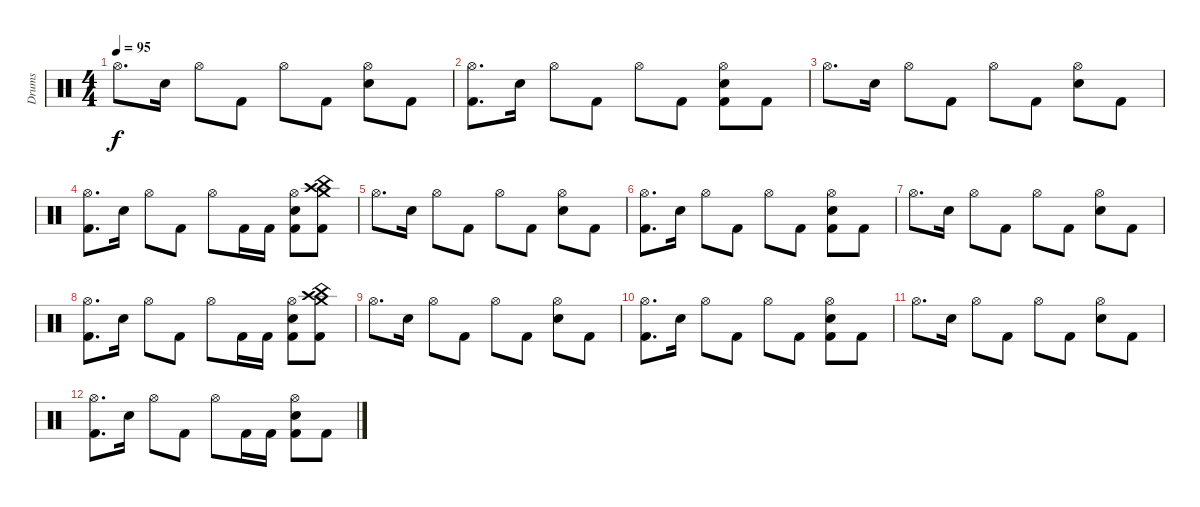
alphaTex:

\track ("Drums" "Drums") {instrument percussion}
\staff {score}
\articulation defaults
\ts (4 4)
\tempo 95
\clef neutral
\ks c "Hi-Hat (open)".8{d dy f} "Electric Snare (hit)".16 "Hi-Hat (open)".8 "Kick (hit) 2".8 "Hi-Hat (open)".8 "Kick (hit) 2".8
("Hi-Hat (open)" "Electric Snare (hit)").8 "Kick (hit) 2".8 |
("Hi-Hat (open)" "Kick (hit) 2").8{d} "Electric Snare (hit)".16 "Hi-Hat (open)".8 "Kick (hit) 2".8 "Hi-Hat (open)".8 "Kick (hit) 2".8 ("Hi-Hat (open)" "Electric Snare (hit)" "Kick (hit) 2").8 "Kick (hit) 2".8 |
"Hi-Hat (open)".8{d} "Electric Snare (hit)".16 "Hi-Hat (open)".8 "Kick (hit) 2".8 "Hi-Hat (open)".8 "Kick (hit) 2".8 ("Hi-Hat (open)" "Electric Snare (hit)").8 "Kick (hit) 2".8 |
("Hi-Hat (open)" "Kick (hit) 2").8{d} "Electric Snare (hit)".16 "Hi-Hat (open)".8 "Kick (hit) 2".8 "Hi-Hat (open)".8 "Kick (hit) 2".16 "Kick (hit) 2".16 ("Hi-Hat (open)" "Electric Snare (hit)" "Kick (hit) 2").8 ("Crash high (hit)" "Crash medium (hit)" "China (hit)" "Kick (hit) 2").8 |
"Hi-Hat (open)".8{d} "Electric Snare (hit)".16 "Hi-Hat (open)".8 "Kick (hit) 2".8 "Hi-Hat (open)".8 "Kick (hit) 2".8 ("Hi-Hat (open)" "Electric Snare (hit)").8 "Kick (hit) 2".8 |
("Hi-Hat (open)" "Kick (hit) 2").8{d} "Electric Snare (hit)".16 "Hi-Hat (open)".8 "Kick (hit) 2".8 "Hi-Hat (open)".8 "Kick (hit) 2".8 ("Hi-Hat (open)" "Electric Snare (hit)" "Kick (hit) 2").8 "Kick (hit) 2".8 |
"Hi-Hat (open)".8{d} "Electric Snare (hit)".16 "Hi-Hat (open)".8 "Kick (hit) 2".8 "Hi-Hat (open)".8 "Kick (hit) 2".8 ("Hi-Hat (open)" "Electric Snare (hit)").8 "Kick (hit) 2".8 |
("Hi-Hat (open)" "Kick (hit) 2").8{d} "Electric Snare (hit)".16 "Hi-Hat (open)".8 "Kick (hit) 2".8 "Hi-Hat (open)".8 "Kick (hit) 2".16 "Kick (hit) 2".16 ("Hi-Hat (open)" "Electric Snare (hit)" "Kick (hit) 2").8 ("Crash high (hit)" "Crash medium (hit)" "China (hit)" "Kick (hit) 2").8 |
"Hi-Hat (open)".8{d} "Electric Snare (hit)".16 "Hi-Hat (open)".8 "Kick (hit) 2".8 "Hi-Hat (open)".8 "Kick (hit) 2".8 ("Hi-Hat (open)" "Electric Snare (hit)").8 "Kick (hit) 2".8 |
("Hi-Hat (open)" "Kick (hit) 2").8{d} "Electric Snare (hit)".16 "Hi-Hat (open)".8 "Kick (hit) 2".8 "Hi-Hat (open)".8 "Kick (hit) 2".8 ("Hi-Hat (open)" "Electric Snare (hit)" "Kick (hit) 2").8 "Kick (hit) 2".8 |
"Hi-Hat (open)".8{d} "Electric Snare (hit)".16 "Hi-Hat (open)".8 "Kick (hit) 2".8 "Hi-Hat (open)".8 "Kick (hit) 2".8 ("Hi-Hat (open)" "Electric Snare (hit)").8 "Kick (hit) 2".8 |
("Hi-Hat (open)" "Kick (hit) 2").8{d} "Electric Snare (hit)".16 "Hi-Hat (open)".8 "Kick (hit) 2".8 "Hi-Hat (open)".8 "Kick (hit) 2".16 "Kick (hit) 2".16 ("Hi-Hat (open)" "Electric Snare (hit)" "Kick (hit) 2").8 "Kick (hit) 2".8
